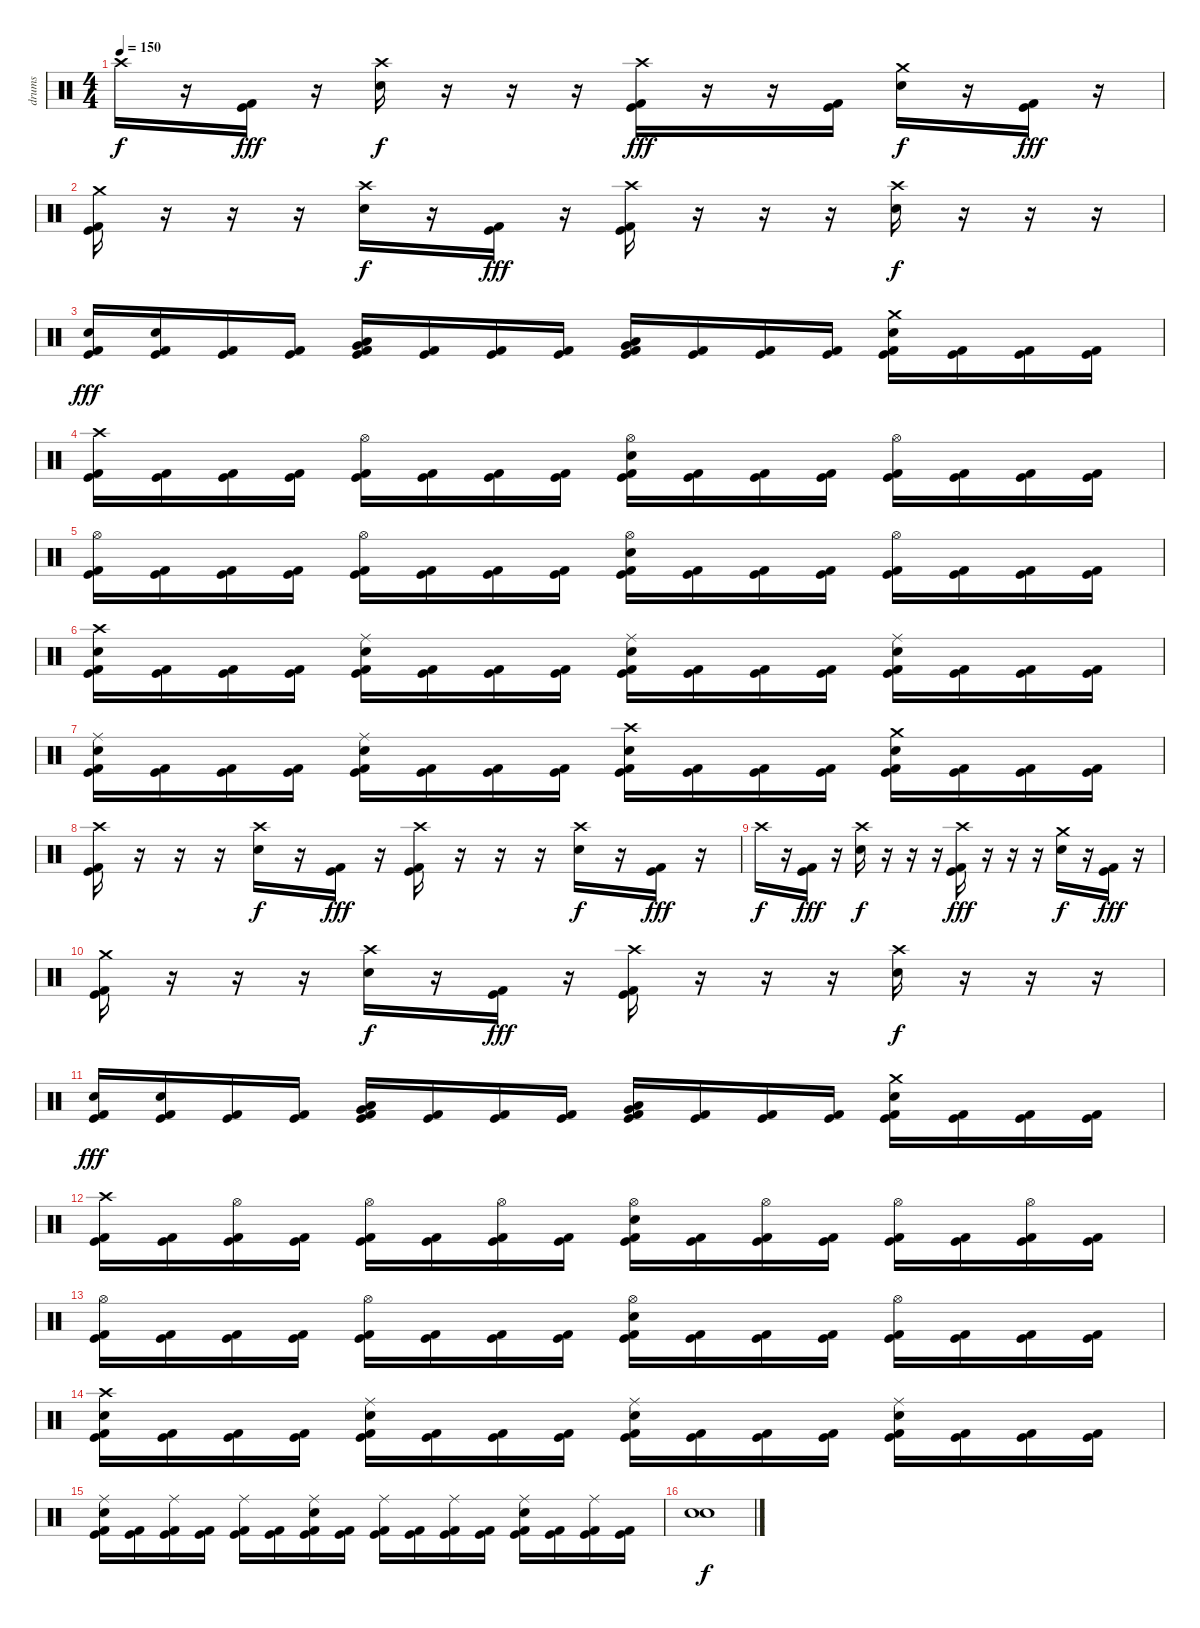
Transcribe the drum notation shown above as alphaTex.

\track ("drums" "drums") {instrument percussion}
\staff {score}
\articulation defaults
\ts (4 4)
\tempo 150
\clef neutral
\ks c "Crash high (hit)".16{dy f}
r.16 ("Kick (hit)" "Kick (hit) 2").16{dy fff} r.16 ("Crash high (hit)" "Electric Snare (hit)").16{dy f} r.16 r.16 r.16 ("Crash high (hit)" "Kick (hit)" "Kick (hit) 2").16{dy fff} r.16 r.16 ("Kick (hit)" "Kick (hit) 2").16 ("Crash medium (hit)" "Electric Snare (hit)").16{dy f} r.16 ("Kick (hit)" "Kick (hit) 2").16{dy fff} r.16 |
("Crash medium (hit)" "Kick (hit)" "Kick (hit) 2").16 r.16 r.16 r.16 ("Crash high (hit)" "Electric Snare (hit)").16{dy f} r.16 ("Kick (hit)" "Kick (hit) 2").16{dy fff} r.16 ("Crash high (hit)" "Kick (hit)" "Kick (hit) 2").16 r.16 r.16 r.16 ("Crash high (hit)" "Electric Snare (hit)").16{dy f} r.16 r.16 r.16 |
("Electric Snare (hit)" "Kick (hit)" "Kick (hit) 2").16{dy fff} ("Electric Snare (hit)" "Kick (hit)" "Kick (hit) 2").16 ("Kick (hit)" "Kick (hit) 2").16 ("Kick (hit)" "Kick (hit) 2").16 ("Low Tom (hit)" "Very Low Tom (hit)" "Kick (hit)" "Kick (hit) 2").16{bu 60} ("Kick (hit)" "Kick (hit) 2").16 ("Kick (hit)" "Kick (hit) 2").16 ("Kick (hit)" "Kick (hit) 2").16 ("Very Low Tom (hit)" "Low Floor Tom (hit)" "Kick (hit)" "Kick (hit) 2").16{bu 60} ("Kick (hit)" "Kick (hit) 2").16 ("Kick (hit)" "Kick (hit) 2").16 ("Kick (hit)" "Kick (hit) 2").16 ("Crash medium (hit)" "Electric Snare (hit)" "Kick (hit)" "Kick (hit) 2").16 ("Kick (hit)" "Kick (hit) 2").16 ("Kick (hit)" "Kick (hit) 2").16 ("Kick (hit)" "Kick (hit) 2").16 |
("Crash high (hit)" "Kick (hit)" "Kick (hit) 2").16 ("Kick (hit)" "Kick (hit) 2").16 ("Kick (hit)" "Kick (hit) 2").16 ("Kick (hit)" "Kick (hit) 2").16 ("Hi-Hat (open)" "Kick (hit)" "Kick (hit) 2").16 ("Kick (hit)" "Kick (hit) 2").16 ("Kick (hit)" "Kick (hit) 2").16 ("Kick (hit)" "Kick (hit) 2").16 ("Hi-Hat (open)" "Electric Snare (hit)" "Kick (hit)" "Kick (hit) 2").16 ("Kick (hit)" "Kick (hit) 2").16 ("Kick (hit)" "Kick (hit) 2").16 ("Kick (hit)" "Kick (hit) 2").16 ("Hi-Hat (open)" "Kick (hit)" "Kick (hit) 2").16 ("Kick (hit)" "Kick (hit) 2").16 ("Kick (hit)" "Kick (hit) 2").16 ("Kick (hit)" "Kick (hit) 2").16 |
("Hi-Hat (open)" "Kick (hit)" "Kick (hit) 2").16 ("Kick (hit)" "Kick (hit) 2").16 ("Kick (hit)" "Kick (hit) 2").16 ("Kick (hit)" "Kick (hit) 2").16 ("Hi-Hat (open)" "Kick (hit)" "Kick (hit) 2").16 ("Kick (hit)" "Kick (hit) 2").16 ("Kick (hit)" "Kick (hit) 2").16 ("Kick (hit)" "Kick (hit) 2").16 ("Hi-Hat (open)" "Electric Snare (hit)" "Kick (hit)" "Kick (hit) 2").16 ("Kick (hit)" "Kick (hit) 2").16 ("Kick (hit)" "Kick (hit) 2").16 ("Kick (hit)" "Kick (hit) 2").16 ("Hi-Hat (open)" "Kick (hit)" "Kick (hit) 2").16 ("Kick (hit)" "Kick (hit) 2").16 ("Kick (hit)" "Kick (hit) 2").16 ("Kick (hit)" "Kick (hit) 2").16 |
("Crash high (hit)" "Electric Snare (hit)" "Kick (hit)" "Kick (hit) 2").16 ("Kick (hit)" "Kick (hit) 2").16 ("Kick (hit)" "Kick (hit) 2").16 ("Kick (hit)" "Kick (hit) 2").16 ("Ride (middle)" "Electric Snare (hit)" "Kick (hit)" "Kick (hit) 2").16 ("Kick (hit)" "Kick (hit) 2").16 ("Kick (hit)" "Kick (hit) 2").16 ("Kick (hit)" "Kick (hit) 2").16 ("Ride (middle)" "Electric Snare (hit)" "Kick (hit)" "Kick (hit) 2").16 ("Kick (hit)" "Kick (hit) 2").16 ("Kick (hit)" "Kick (hit) 2").16 ("Kick (hit)" "Kick (hit) 2").16 ("Ride (middle)" "Electric Snare (hit)" "Kick (hit)" "Kick (hit) 2").16 ("Kick (hit)" "Kick (hit) 2").16 ("Kick (hit)" "Kick (hit) 2").16 ("Kick (hit)" "Kick (hit) 2").16 |
("Ride (middle)" "Electric Snare (hit)" "Kick (hit)" "Kick (hit) 2").16 ("Kick (hit)" "Kick (hit) 2").16 ("Kick (hit)" "Kick (hit) 2").16 ("Kick (hit)" "Kick (hit) 2").16 ("Ride (middle)" "Electric Snare (hit)" "Kick (hit)" "Kick (hit) 2").16 ("Kick (hit)" "Kick (hit) 2").16 ("Kick (hit)" "Kick (hit) 2").16 ("Kick (hit)" "Kick (hit) 2").16 ("Crash high (hit)" "Electric Snare (hit)" "Kick (hit)" "Kick (hit) 2").16 ("Kick (hit)" "Kick (hit) 2").16 ("Kick (hit)" "Kick (hit) 2").16 ("Kick (hit)" "Kick (hit) 2").16 ("Crash medium (hit)" "Electric Snare (hit)" "Kick (hit)" "Kick (hit) 2").16 ("Kick (hit)" "Kick (hit) 2").16 ("Kick (hit)" "Kick (hit) 2").16 ("Kick (hit)" "Kick (hit) 2").16 |
("Crash high (hit)" "Kick (hit)" "Kick (hit) 2").16 r.16 r.16 r.16 ("Crash high (hit)" "Electric Snare (hit)").16{dy f} r.16 ("Kick (hit)" "Kick (hit) 2").16{dy fff} r.16 ("Crash high (hit)" "Kick (hit)" "Kick (hit) 2").16 r.16 r.16 r.16 ("Crash high (hit)" "Electric Snare (hit)").16{dy f} r.16 ("Kick (hit)" "Kick (hit) 2").16{dy fff} r.16 |
"Crash high (hit)".16{dy f} r.16 ("Kick (hit)" "Kick (hit) 2").16{dy fff} r.16 ("Crash high (hit)" "Electric Snare (hit)").16{dy f} r.16 r.16 r.16 ("Crash high (hit)" "Kick (hit)" "Kick (hit) 2").16{dy fff} r.16 r.16 r.16 ("Crash medium (hit)" "Electric Snare (hit)").16{dy f} r.16 ("Kick (hit)" "Kick (hit) 2").16{dy fff} r.16 |
("Crash medium (hit)" "Kick (hit)" "Kick (hit) 2").16 r.16 r.16 r.16 ("Crash high (hit)" "Electric Snare (hit)").16{dy f} r.16 ("Kick (hit)" "Kick (hit) 2").16{dy fff} r.16 ("Crash high (hit)" "Kick (hit)" "Kick (hit) 2").16 r.16 r.16 r.16 ("Crash high (hit)" "Electric Snare (hit)").16{dy f} r.16 r.16 r.16 |
("Electric Snare (hit)" "Kick (hit)" "Kick (hit) 2").16{dy fff} ("Electric Snare (hit)" "Kick (hit)" "Kick (hit) 2").16 ("Kick (hit)" "Kick (hit) 2").16 ("Kick (hit)" "Kick (hit) 2").16 ("Low Tom (hit)" "Very Low Tom (hit)" "Kick (hit)" "Kick (hit) 2").16{bu 60} ("Kick (hit)" "Kick (hit) 2").16 ("Kick (hit)" "Kick (hit) 2").16 ("Kick (hit)" "Kick (hit) 2").16 ("Very Low Tom (hit)" "Low Floor Tom (hit)" "Kick (hit)" "Kick (hit) 2").16{bu 60} ("Kick (hit)" "Kick (hit) 2").16 ("Kick (hit)" "Kick (hit) 2").16 ("Kick (hit)" "Kick (hit) 2").16 ("Crash medium (hit)" "Electric Snare (hit)" "Kick (hit)" "Kick (hit) 2").16 ("Kick (hit)" "Kick (hit) 2").16 ("Kick (hit)" "Kick (hit) 2").16 ("Kick (hit)" "Kick (hit) 2").16 |
("Crash high (hit)" "Kick (hit)" "Kick (hit) 2").16 ("Kick (hit)" "Kick (hit) 2").16 ("Hi-Hat (open)" "Kick (hit)" "Kick (hit) 2").16 ("Kick (hit)" "Kick (hit) 2").16 ("Hi-Hat (open)" "Kick (hit)" "Kick (hit) 2").16 ("Kick (hit)" "Kick (hit) 2").16 ("Hi-Hat (open)" "Kick (hit)" "Kick (hit) 2").16 ("Kick (hit)" "Kick (hit) 2").16 ("Hi-Hat (open)" "Electric Snare (hit)" "Kick (hit)" "Kick (hit) 2").16 ("Kick (hit)" "Kick (hit) 2").16 ("Hi-Hat (open)" "Kick (hit)" "Kick (hit) 2").16 ("Kick (hit)" "Kick (hit) 2").16 ("Hi-Hat (open)" "Kick (hit)" "Kick (hit) 2").16 ("Kick (hit)" "Kick (hit) 2").16 ("Hi-Hat (open)" "Kick (hit)" "Kick (hit) 2").16 ("Kick (hit)" "Kick (hit) 2").16 |
("Hi-Hat (open)" "Kick (hit)" "Kick (hit) 2").16 ("Kick (hit)" "Kick (hit) 2").16 ("Kick (hit)" "Kick (hit) 2").16 ("Kick (hit)" "Kick (hit) 2").16 ("Hi-Hat (open)" "Kick (hit)" "Kick (hit) 2").16 ("Kick (hit)" "Kick (hit) 2").16 ("Kick (hit)" "Kick (hit) 2").16 ("Kick (hit)" "Kick (hit) 2").16 ("Hi-Hat (open)" "Electric Snare (hit)" "Kick (hit)" "Kick (hit) 2").16 ("Kick (hit)" "Kick (hit) 2").16 ("Kick (hit)" "Kick (hit) 2").16 ("Kick (hit)" "Kick (hit) 2").16 ("Hi-Hat (open)" "Kick (hit)" "Kick (hit) 2").16 ("Kick (hit)" "Kick (hit) 2").16 ("Kick (hit)" "Kick (hit) 2").16 ("Kick (hit)" "Kick (hit) 2").16 |
("Crash high (hit)" "Electric Snare (hit)" "Kick (hit)" "Kick (hit) 2").16 ("Kick (hit)" "Kick (hit) 2").16 ("Kick (hit)" "Kick (hit) 2").16 ("Kick (hit)" "Kick (hit) 2").16 ("Ride (middle)" "Electric Snare (hit)" "Kick (hit)" "Kick (hit) 2").16 ("Kick (hit)" "Kick (hit) 2").16 ("Kick (hit)" "Kick (hit) 2").16 ("Kick (hit)" "Kick (hit) 2").16 ("Ride (middle)" "Electric Snare (hit)" "Kick (hit)" "Kick (hit) 2").16 ("Kick (hit)" "Kick (hit) 2").16 ("Kick (hit)" "Kick (hit) 2").16 ("Kick (hit)" "Kick (hit) 2").16 ("Ride (middle)" "Electric Snare (hit)" "Kick (hit)" "Kick (hit) 2").16 ("Kick (hit)" "Kick (hit) 2").16 ("Kick (hit)" "Kick (hit) 2").16 ("Kick (hit)" "Kick (hit) 2").16 |
("Ride (middle)" "Electric Snare (hit)" "Kick (hit)" "Kick (hit) 2").16 ("Kick (hit)" "Kick (hit) 2").16 ("Ride (middle)" "Kick (hit)" "Kick (hit) 2").16 ("Kick (hit)" "Kick (hit) 2").16 ("Ride (middle)" "Kick (hit)" "Kick (hit) 2").16 ("Kick (hit)" "Kick (hit) 2").16 ("Ride (middle)" "Electric Snare (hit)" "Kick (hit)" "Kick (hit) 2").16 ("Kick (hit)" "Kick (hit) 2").16 ("Ride (middle)" "Kick (hit)" "Kick (hit) 2").16 ("Kick (hit)" "Kick (hit) 2").16 ("Ride (middle)" "Kick (hit)" "Kick (hit) 2").16 ("Kick (hit)" "Kick (hit) 2").16 ("Ride (middle)" "Electric Snare (hit)" "Kick (hit)" "Kick (hit) 2").16 ("Kick (hit)" "Kick (hit) 2").16 ("Ride (middle)" "Kick (hit)" "Kick (hit) 2").16 ("Kick (hit)" "Kick (hit) 2").16 |
("Electric Snare (hit)" "Electric Snare (hit)").1{dy f}
